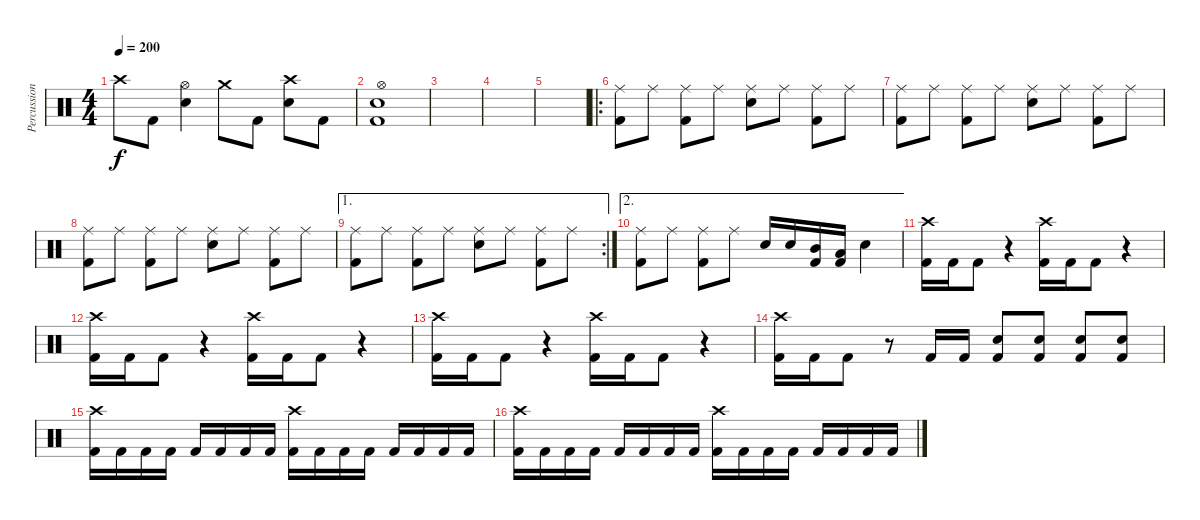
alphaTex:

\track ("Percussion" "Percussion") {instrument percussion}
\staff {score}
\articulation defaults
\ts (4 4)
\tempo 200
\clef neutral
\ks c "Crash high (hit)".8{dy f} "Kick (hit) 2".8
("Hi-Hat (open)" "Snare (hit) 2").4 "Crash medium (hit)".8 "Kick (hit) 2".8 ("Crash high (hit)" "Snare (hit) 2").8 "Kick (hit) 2".8 |
("Hi-Hat (open)" "Snare (hit) 2" "Kick (hit) 2").1 |
|
|
|
\ro
("Ride (middle)" "Kick (hit) 2").8 "Ride (middle)".8 ("Ride (middle)" "Kick (hit) 2").8 "Ride (middle)".8 ("Ride (middle)" "Snare (hit) 2").8 "Ride (middle)".8 ("Ride (middle)" "Kick (hit) 2").8 "Ride (middle)".8 |
("Ride (middle)" "Kick (hit) 2").8 "Ride (middle)".8 ("Ride (middle)" "Kick (hit) 2").8 "Ride (middle)".8 ("Ride (middle)" "Snare (hit) 2").8 "Ride (middle)".8 ("Ride (middle)" "Kick (hit) 2").8 "Ride (middle)".8 |
("Ride (middle)" "Kick (hit) 2").8 "Ride (middle)".8 ("Ride (middle)" "Kick (hit) 2").8 "Ride (middle)".8 ("Ride (middle)" "Snare (hit) 2").8 "Ride (middle)".8 ("Ride (middle)" "Kick (hit) 2").8 "Ride (middle)".8 |
\ae 1
\rc 2
("Ride (middle)" "Kick (hit) 2").8 "Ride (middle)".8 ("Ride (middle)" "Kick (hit) 2").8 "Ride (middle)".8 ("Ride (middle)" "Snare (hit) 2").8 "Ride (middle)".8 ("Ride (middle)" "Kick (hit) 2").8 "Ride (middle)".8 |
\ae 2
("Ride (middle)" "Kick (hit) 2").8 "Ride (middle)".8 ("Ride (middle)" "Kick (hit) 2").8 "Ride (middle)".8 "Snare (hit) 2".16 "Snare (hit) 2".16 ("Mid Tom (hit)" "Kick (hit) 2").16 ("Low Tom (hit)" "Kick (hit) 2").16 "Snare (hit) 2".4 |
("Crash high (hit)" "Kick (hit) 2").16 "Kick (hit) 2".16 "Kick (hit) 2".8 r.4 ("Crash high (hit)" "Kick (hit) 2").16 "Kick (hit) 2".16 "Kick (hit) 2".8 r.4 |
("Crash high (hit)" "Kick (hit) 2").16 "Kick (hit) 2".16 "Kick (hit) 2".8 r.4 ("Crash high (hit)" "Kick (hit) 2").16 "Kick (hit) 2".16 "Kick (hit) 2".8 r.4 |
("Crash high (hit)" "Kick (hit) 2").16 "Kick (hit) 2".16 "Kick (hit) 2".8 r.4 ("Crash high (hit)" "Kick (hit) 2").16 "Kick (hit) 2".16 "Kick (hit) 2".8 r.4 |
("Crash high (hit)" "Kick (hit) 2").16 "Kick (hit) 2".16 "Kick (hit) 2".8 r.8 "Kick (hit) 2".16 "Kick (hit) 2".16 ("Snare (hit) 2" "Kick (hit) 2").8 ("Snare (hit) 2" "Kick (hit) 2").8 ("Snare (hit) 2" "Kick (hit) 2").8 ("Snare (hit) 2" "Kick (hit) 2").8 |
("Crash high (hit)" "Kick (hit) 2").16 "Kick (hit) 2".16 "Kick (hit) 2".16 "Kick (hit) 2".16 "Kick (hit) 2".16 "Kick (hit) 2".16 "Kick (hit) 2".16 "Kick (hit) 2".16 ("Crash high (hit)" "Kick (hit) 2").16 "Kick (hit) 2".16 "Kick (hit) 2".16 "Kick (hit) 2".16 "Kick (hit) 2".16 "Kick (hit) 2".16 "Kick (hit) 2".16 "Kick (hit) 2".16 |
("Crash high (hit)" "Kick (hit) 2").16 "Kick (hit) 2".16 "Kick (hit) 2".16 "Kick (hit) 2".16 "Kick (hit) 2".16 "Kick (hit) 2".16 "Kick (hit) 2".16 "Kick (hit) 2".16 ("Crash high (hit)" "Kick (hit) 2").16 "Kick (hit) 2".16 "Kick (hit) 2".16 "Kick (hit) 2".16 "Kick (hit) 2".16 "Kick (hit) 2".16 "Kick (hit) 2".16 "Kick (hit) 2".16
